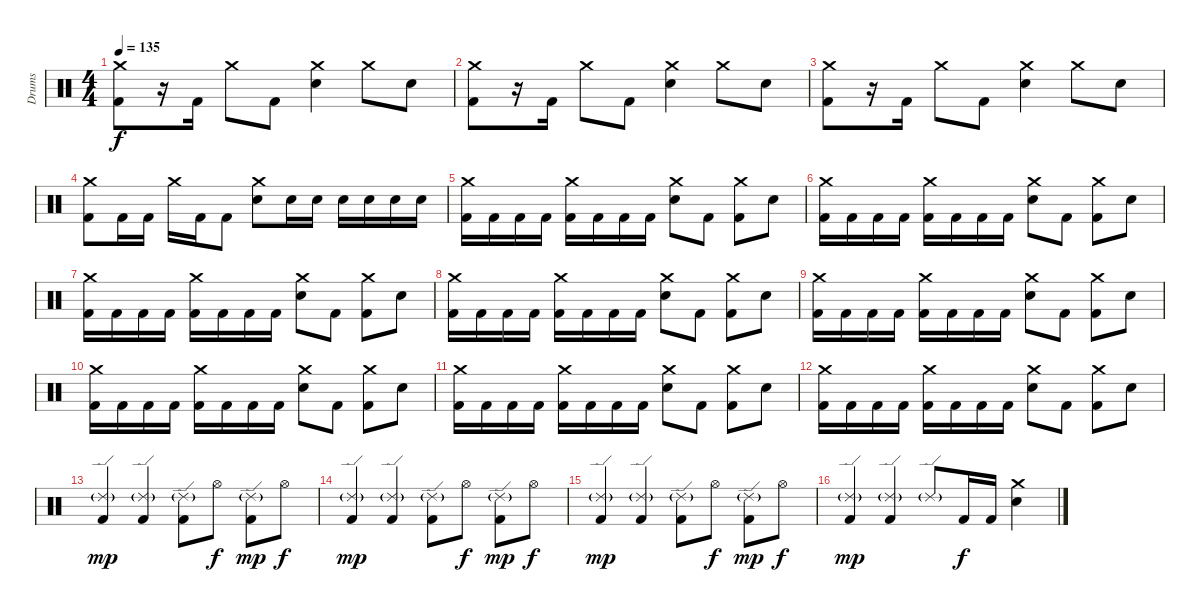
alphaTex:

\track ("Drums" "Drums") {instrument percussion}
\staff {score}
\articulation defaults
\ts (4 4)
\tempo 135
\clef neutral
\ks c
("Crash medium (hit)" "Kick (hit) 2").8{dy f} r.16 "Kick (hit) 2".16 "Crash medium (hit)".8 "Kick (hit) 2".8 ("Crash medium (hit)" "Electric Snare (hit)").4 "Crash medium (hit)".8 "Electric Snare (hit)".8 |
("Crash medium (hit)" "Kick (hit) 2").8 r.16 "Kick (hit) 2".16 "Crash medium (hit)".8 "Kick (hit) 2".8 ("Crash medium (hit)" "Electric Snare (hit)").4 "Crash medium (hit)".8 "Electric Snare (hit)".8 |
("Crash medium (hit)" "Kick (hit) 2").8 r.16 "Kick (hit) 2".16 "Crash medium (hit)".8 "Kick (hit) 2".8 ("Crash medium (hit)" "Electric Snare (hit)").4 "Crash medium (hit)".8 "Electric Snare (hit)".8 |
("Crash medium (hit)" "Kick (hit) 2").8 "Kick (hit) 2".16 "Kick (hit) 2".16 "Crash medium (hit)".16 "Kick (hit) 2".16 "Kick (hit) 2".8 ("Crash medium (hit)" "Electric Snare (hit)").8 "Electric Snare (hit)".16 "Electric Snare (hit)".16 "Electric Snare (hit)".16 "Electric Snare (hit)".16 "Electric Snare (hit)".16 "Electric Snare (hit)".16 |
("Crash medium (hit)" "Kick (hit) 2").16 "Kick (hit) 2".16 "Kick (hit) 2".16 "Kick (hit) 2".16 ("Crash medium (hit)" "Kick (hit) 2").16 "Kick (hit) 2".16 "Kick (hit) 2".16 "Kick (hit) 2".16 ("Crash medium (hit)" "Electric Snare (hit)").8 "Kick (hit) 2".8 ("Crash medium (hit)" "Kick (hit) 2").8 "Electric Snare (hit)".8 |
("Crash medium (hit)" "Kick (hit) 2").16 "Kick (hit) 2".16 "Kick (hit) 2".16 "Kick (hit) 2".16 ("Crash medium (hit)" "Kick (hit) 2").16 "Kick (hit) 2".16 "Kick (hit) 2".16 "Kick (hit) 2".16 ("Crash medium (hit)" "Electric Snare (hit)").8 "Kick (hit) 2".8 ("Crash medium (hit)" "Kick (hit) 2").8 "Electric Snare (hit)".8 |
("Crash medium (hit)" "Kick (hit) 2").16 "Kick (hit) 2".16 "Kick (hit) 2".16 "Kick (hit) 2".16 ("Crash medium (hit)" "Kick (hit) 2").16 "Kick (hit) 2".16 "Kick (hit) 2".16 "Kick (hit) 2".16 ("Crash medium (hit)" "Electric Snare (hit)").8 "Kick (hit) 2".8 ("Crash medium (hit)" "Kick (hit) 2").8 "Electric Snare (hit)".8 |
("Crash medium (hit)" "Kick (hit) 2").16 "Kick (hit) 2".16 "Kick (hit) 2".16 "Kick (hit) 2".16 ("Crash medium (hit)" "Kick (hit) 2").16 "Kick (hit) 2".16 "Kick (hit) 2".16 "Kick (hit) 2".16 ("Crash medium (hit)" "Electric Snare (hit)").8 "Kick (hit) 2".8 ("Crash medium (hit)" "Kick (hit) 2").8 "Electric Snare (hit)".8 |
("Crash medium (hit)" "Kick (hit) 2").16 "Kick (hit) 2".16 "Kick (hit) 2".16 "Kick (hit) 2".16 ("Crash medium (hit)" "Kick (hit) 2").16 "Kick (hit) 2".16 "Kick (hit) 2".16 "Kick (hit) 2".16 ("Crash medium (hit)" "Electric Snare (hit)").8 "Kick (hit) 2".8 ("Crash medium (hit)" "Kick (hit) 2").8 "Electric Snare (hit)".8 |
("Crash medium (hit)" "Kick (hit) 2").16 "Kick (hit) 2".16 "Kick (hit) 2".16 "Kick (hit) 2".16 ("Crash medium (hit)" "Kick (hit) 2").16 "Kick (hit) 2".16 "Kick (hit) 2".16 "Kick (hit) 2".16 ("Crash medium (hit)" "Electric Snare (hit)").8 "Kick (hit) 2".8 ("Crash medium (hit)" "Kick (hit) 2").8 "Electric Snare (hit)".8 |
("Crash medium (hit)" "Kick (hit) 2").16 "Kick (hit) 2".16 "Kick (hit) 2".16 "Kick (hit) 2".16 ("Crash medium (hit)" "Kick (hit) 2").16 "Kick (hit) 2".16 "Kick (hit) 2".16 "Kick (hit) 2".16 ("Crash medium (hit)" "Electric Snare (hit)").8 "Kick (hit) 2".8 ("Crash medium (hit)" "Kick (hit) 2").8 "Electric Snare (hit)".8 |
("Crash medium (hit)" "Kick (hit) 2").16 "Kick (hit) 2".16 "Kick (hit) 2".16 "Kick (hit) 2".16 ("Crash medium (hit)" "Kick (hit) 2").16 "Kick (hit) 2".16 "Kick (hit) 2".16 "Kick (hit) 2".16 ("Crash medium (hit)" "Electric Snare (hit)").8 "Kick (hit) 2".8 ("Crash medium (hit)" "Kick (hit) 2").8 "Electric Snare (hit)".8 |
("Ride (edge) 2"{g} "Kick (hit) 2").4{dy mp} ("Ride (edge) 2"{g} "Kick (hit) 2").4 ("Ride (edge) 2"{g} "Kick (hit) 2").8 "Hi-Hat (open)".8{dy f} ("Ride (edge) 2"{g} "Kick (hit) 2").8{dy mp} "Hi-Hat (open)".8{dy f} |
("Ride (edge) 2"{g} "Kick (hit) 2").4{dy mp} ("Ride (edge) 2"{g} "Kick (hit) 2").4 ("Ride (edge) 2"{g} "Kick (hit) 2").8 "Hi-Hat (open)".8{dy f} ("Ride (edge) 2"{g} "Kick (hit) 2").8{dy mp} "Hi-Hat (open)".8{dy f} |
("Ride (edge) 2"{g} "Kick (hit) 2").4{dy mp} ("Ride (edge) 2"{g} "Kick (hit) 2").4 ("Ride (edge) 2"{g} "Kick (hit) 2").8 "Hi-Hat (open)".8{dy f} ("Ride (edge) 2"{g} "Kick (hit) 2").8{dy mp} "Hi-Hat (open)".8{dy f} |
("Ride (edge) 2"{g} "Kick (hit) 2").4{dy mp} ("Ride (edge) 2"{g} "Kick (hit) 2").4 "Ride (edge) 2"{g}.8 "Kick (hit) 2".16{dy f} "Kick (hit) 2".16 ("Crash medium (hit)" "Electric Snare (hit)").4
